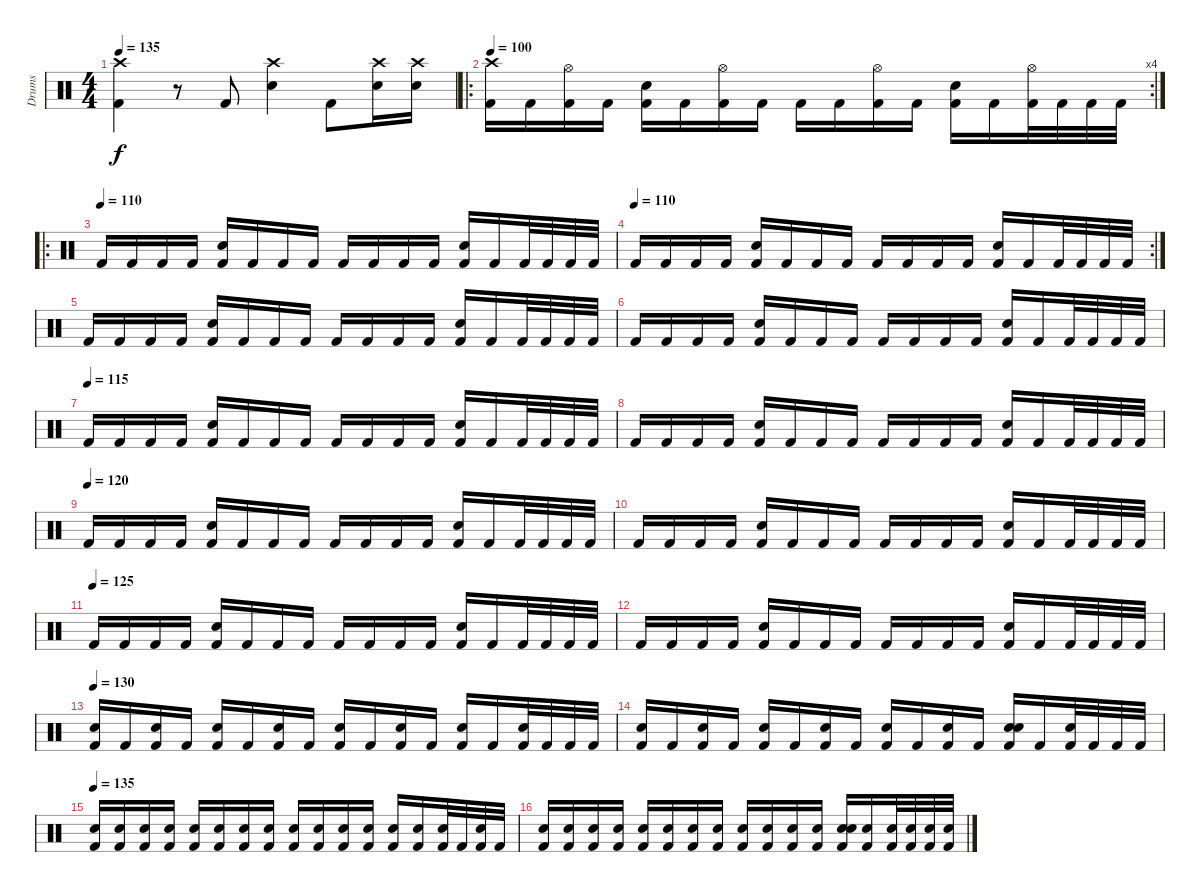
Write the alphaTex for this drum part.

\track ("Drums" "Drums") {instrument percussion}
\staff {score}
\articulation defaults
\ts (4 4)
\tempo 135
\clef neutral
\ks c
("Crash high (hit)" "Kick (hit) 2").4{dy f} r.8 "Kick (hit) 2".8 ("Crash high (hit)" "Snare (hit) 2").4 "Kick (hit) 2".8 ("Crash high (hit)" "Snare (hit) 2").16 ("Crash high (hit)" "Snare (hit) 2").16 |
\ro
\rc 4
\tempo 100
("Crash high (hit)" "Kick (hit) 2").16 "Kick (hit) 2".16 ("Hi-Hat (open)" "Kick (hit) 2").16 "Kick (hit) 2".16 ("Snare (hit) 2" "Kick (hit) 2").16 "Kick (hit) 2".16 ("Hi-Hat (open)" "Kick (hit) 2").16 "Kick (hit) 2".16 "Kick (hit) 2".16 "Kick (hit) 2".16 ("Hi-Hat (open)" "Kick (hit) 2").16 "Kick (hit) 2".16 ("Snare (hit) 2" "Kick (hit) 2").16 "Kick (hit) 2".16 ("Hi-Hat (open)" "Kick (hit) 2").32 "Kick (hit) 2".32 "Kick (hit) 2".32 "Kick (hit) 2".32 |
\ro
\tempo (110)
"Kick (hit) 2".16 "Kick (hit) 2".16 "Kick (hit) 2".16 "Kick (hit) 2".16 ("Snare (hit) 2" "Kick (hit) 2").16 "Kick (hit) 2".16 "Kick (hit) 2".16 "Kick (hit) 2".16 "Kick (hit) 2".16 "Kick (hit) 2".16 "Kick (hit) 2".16 "Kick (hit) 2".16 ("Snare (hit) 2" "Kick (hit) 2").16 "Kick (hit) 2".16 "Kick (hit) 2".32 "Kick (hit) 2".32 "Kick (hit) 2".32 "Kick (hit) 2".32 |
\rc 2
\tempo (110)
"Kick (hit) 2".16 "Kick (hit) 2".16 "Kick (hit) 2".16 "Kick (hit) 2".16 ("Snare (hit) 2" "Kick (hit) 2").16 "Kick (hit) 2".16 "Kick (hit) 2".16 "Kick (hit) 2".16 "Kick (hit) 2".16 "Kick (hit) 2".16 "Kick (hit) 2".16 "Kick (hit) 2".16 ("Snare (hit) 2" "Kick (hit) 2").16 "Kick (hit) 2".16 "Kick (hit) 2".32 "Kick (hit) 2".32 "Kick (hit) 2".32 "Kick (hit) 2".32 |
"Kick (hit) 2".16 "Kick (hit) 2".16 "Kick (hit) 2".16 "Kick (hit) 2".16 ("Snare (hit) 2" "Kick (hit) 2").16 "Kick (hit) 2".16 "Kick (hit) 2".16 "Kick (hit) 2".16 "Kick (hit) 2".16 "Kick (hit) 2".16 "Kick (hit) 2".16 "Kick (hit) 2".16 ("Snare (hit) 2" "Kick (hit) 2").16 "Kick (hit) 2".16 "Kick (hit) 2".32 "Kick (hit) 2".32 "Kick (hit) 2".32 "Kick (hit) 2".32 |
"Kick (hit) 2".16 "Kick (hit) 2".16 "Kick (hit) 2".16 "Kick (hit) 2".16 ("Snare (hit) 2" "Kick (hit) 2").16 "Kick (hit) 2".16 "Kick (hit) 2".16 "Kick (hit) 2".16 "Kick (hit) 2".16 "Kick (hit) 2".16 "Kick (hit) 2".16 "Kick (hit) 2".16 ("Snare (hit) 2" "Kick (hit) 2").16 "Kick (hit) 2".16 "Kick (hit) 2".32 "Kick (hit) 2".32 "Kick (hit) 2".32 "Kick (hit) 2".32 |
\tempo (115)
"Kick (hit) 2".16 "Kick (hit) 2".16 "Kick (hit) 2".16 "Kick (hit) 2".16 ("Snare (hit) 2" "Kick (hit) 2").16 "Kick (hit) 2".16 "Kick (hit) 2".16 "Kick (hit) 2".16 "Kick (hit) 2".16 "Kick (hit) 2".16 "Kick (hit) 2".16 "Kick (hit) 2".16 ("Snare (hit) 2" "Kick (hit) 2").16 "Kick (hit) 2".16 "Kick (hit) 2".32 "Kick (hit) 2".32 "Kick (hit) 2".32 "Kick (hit) 2".32 |
"Kick (hit) 2".16 "Kick (hit) 2".16 "Kick (hit) 2".16 "Kick (hit) 2".16 ("Snare (hit) 2" "Kick (hit) 2").16 "Kick (hit) 2".16 "Kick (hit) 2".16 "Kick (hit) 2".16 "Kick (hit) 2".16 "Kick (hit) 2".16 "Kick (hit) 2".16 "Kick (hit) 2".16 ("Snare (hit) 2" "Kick (hit) 2").16 "Kick (hit) 2".16 "Kick (hit) 2".32 "Kick (hit) 2".32 "Kick (hit) 2".32 "Kick (hit) 2".32 |
\tempo (120)
"Kick (hit) 2".16 "Kick (hit) 2".16 "Kick (hit) 2".16 "Kick (hit) 2".16 ("Snare (hit) 2" "Kick (hit) 2").16 "Kick (hit) 2".16 "Kick (hit) 2".16 "Kick (hit) 2".16 "Kick (hit) 2".16 "Kick (hit) 2".16 "Kick (hit) 2".16 "Kick (hit) 2".16 ("Snare (hit) 2" "Kick (hit) 2").16 "Kick (hit) 2".16 "Kick (hit) 2".32 "Kick (hit) 2".32 "Kick (hit) 2".32 "Kick (hit) 2".32 |
"Kick (hit) 2".16 "Kick (hit) 2".16 "Kick (hit) 2".16 "Kick (hit) 2".16 ("Snare (hit) 2" "Kick (hit) 2").16 "Kick (hit) 2".16 "Kick (hit) 2".16 "Kick (hit) 2".16 "Kick (hit) 2".16 "Kick (hit) 2".16 "Kick (hit) 2".16 "Kick (hit) 2".16 ("Snare (hit) 2" "Kick (hit) 2").16 "Kick (hit) 2".16 "Kick (hit) 2".32 "Kick (hit) 2".32 "Kick (hit) 2".32 "Kick (hit) 2".32 |
\tempo (125)
"Kick (hit) 2".16 "Kick (hit) 2".16 "Kick (hit) 2".16 "Kick (hit) 2".16 ("Snare (hit) 2" "Kick (hit) 2").16 "Kick (hit) 2".16 "Kick (hit) 2".16 "Kick (hit) 2".16 "Kick (hit) 2".16 "Kick (hit) 2".16 "Kick (hit) 2".16 "Kick (hit) 2".16 ("Snare (hit) 2" "Kick (hit) 2").16 "Kick (hit) 2".16 "Kick (hit) 2".32 "Kick (hit) 2".32 "Kick (hit) 2".32 "Kick (hit) 2".32 |
"Kick (hit) 2".16 "Kick (hit) 2".16 "Kick (hit) 2".16 "Kick (hit) 2".16 ("Snare (hit) 2" "Kick (hit) 2").16 "Kick (hit) 2".16 "Kick (hit) 2".16 "Kick (hit) 2".16 "Kick (hit) 2".16 "Kick (hit) 2".16 "Kick (hit) 2".16 "Kick (hit) 2".16 ("Snare (hit) 2" "Kick (hit) 2").16 "Kick (hit) 2".16 "Kick (hit) 2".32 "Kick (hit) 2".32 "Kick (hit) 2".32 "Kick (hit) 2".32 |
\tempo 130
("Snare (hit) 2" "Kick (hit) 2").16 "Kick (hit) 2".16 ("Snare (hit) 2" "Kick (hit) 2").16 "Kick (hit) 2".16 ("Snare (hit) 2" "Kick (hit) 2").16 "Kick (hit) 2".16 ("Snare (hit) 2" "Kick (hit) 2").16 "Kick (hit) 2".16 ("Snare (hit) 2" "Kick (hit) 2").16 "Kick (hit) 2".16 ("Snare (hit) 2" "Kick (hit) 2").16 "Kick (hit) 2".16 ("Snare (hit) 2" "Kick (hit) 2").16 "Kick (hit) 2".16 ("Snare (hit) 2" "Kick (hit) 2").32 "Kick (hit) 2".32 "Kick (hit) 2".32 "Kick (hit) 2".32 |
("Snare (hit) 2" "Kick (hit) 2").16 "Kick (hit) 2".16 ("Snare (hit) 2" "Kick (hit) 2").16 "Kick (hit) 2".16 ("Snare (hit) 2" "Kick (hit) 2").16 "Kick (hit) 2".16 ("Snare (hit) 2" "Kick (hit) 2").16 "Kick (hit) 2".16 ("Snare (hit) 2" "Kick (hit) 2").16 "Kick (hit) 2".16 ("Snare (hit) 2" "Kick (hit) 2").16 "Kick (hit) 2".16 ("Snare (hit) 2" "Snare (hit) 2" "Kick (hit) 2").16 "Kick (hit) 2".16 ("Snare (hit) 2" "Kick (hit) 2").32 "Kick (hit) 2".32 "Kick (hit) 2".32 "Kick (hit) 2".32 |
\tempo 135
("Snare (hit) 2" "Kick (hit) 2").16 ("Snare (hit) 2" "Kick (hit) 2").16 ("Snare (hit) 2" "Kick (hit) 2").16 ("Snare (hit) 2" "Kick (hit) 2").16 ("Snare (hit) 2" "Kick (hit) 2").16 ("Snare (hit) 2" "Kick (hit) 2").16 ("Snare (hit) 2" "Kick (hit) 2").16 ("Snare (hit) 2" "Kick (hit) 2").16 ("Snare (hit) 2" "Kick (hit) 2").16 ("Snare (hit) 2" "Kick (hit) 2").16 ("Snare (hit) 2" "Kick (hit) 2").16 ("Snare (hit) 2" "Kick (hit) 2").16 ("Snare (hit) 2" "Kick (hit) 2").16 ("Snare (hit) 2" "Kick (hit) 2").16 ("Snare (hit) 2" "Kick (hit) 2").32 "Kick (hit) 2".32 ("Snare (hit) 2" "Kick (hit) 2").32 "Kick (hit) 2".32 |
("Snare (hit) 2" "Kick (hit) 2").16 ("Snare (hit) 2" "Kick (hit) 2").16 ("Snare (hit) 2" "Kick (hit) 2").16 ("Snare (hit) 2" "Kick (hit) 2").16 ("Snare (hit) 2" "Kick (hit) 2").16 ("Snare (hit) 2" "Kick (hit) 2").16 ("Snare (hit) 2" "Kick (hit) 2").16 ("Snare (hit) 2" "Kick (hit) 2").16 ("Snare (hit) 2" "Kick (hit) 2").16 ("Snare (hit) 2" "Kick (hit) 2").16 ("Snare (hit) 2" "Kick (hit) 2").16 ("Snare (hit) 2" "Kick (hit) 2").16 ("Snare (hit) 2" "Snare (hit) 2" "Kick (hit) 2").16 ("Snare (hit) 2" "Kick (hit) 2").16 ("Snare (hit) 2" "Kick (hit) 2").32 ("Snare (hit) 2" "Kick (hit) 2").32 ("Snare (hit) 2" "Kick (hit) 2").32 ("Snare (hit) 2" "Kick (hit) 2").32
